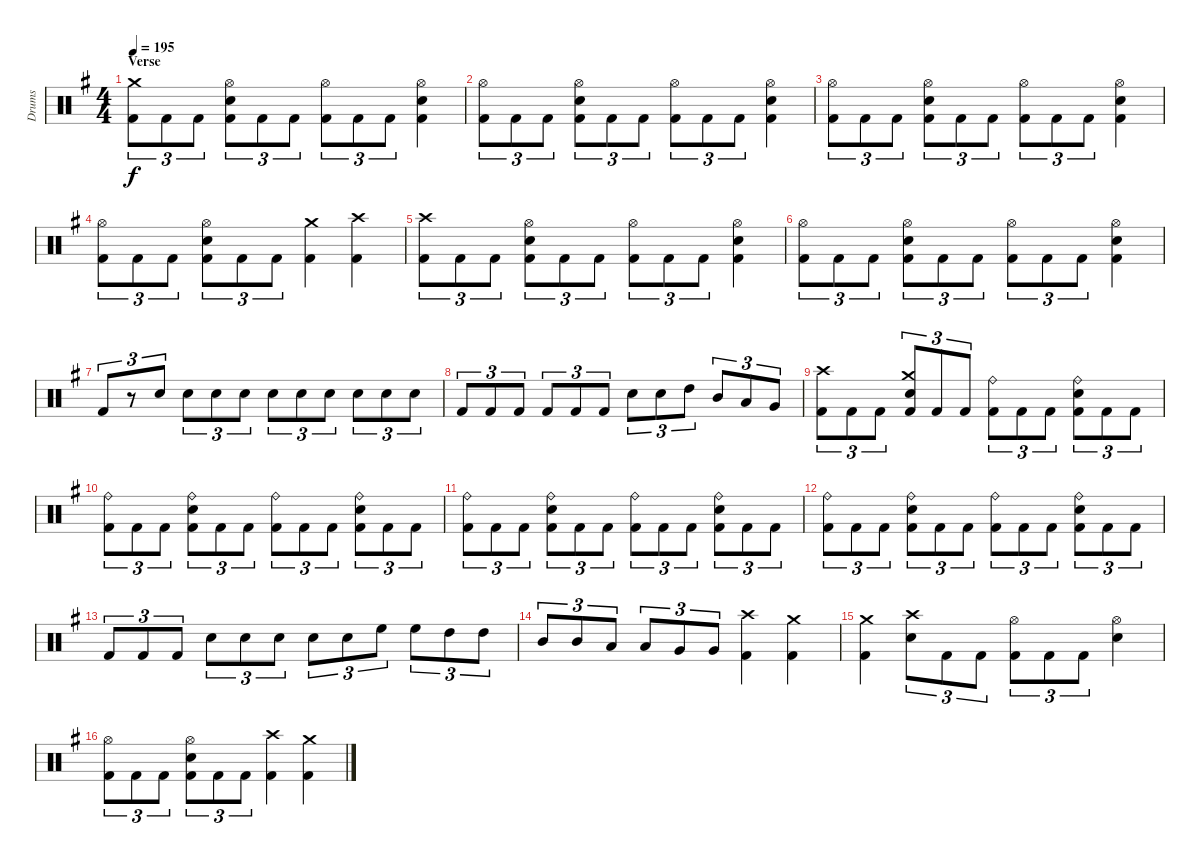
\track ("Drums" "Drums") {instrument percussion}
\staff {score}
\articulation defaults
\ts (4 4)
\section ("" "Verse")
\tempo 195
\clef neutral
\ks eminor
("Kick (hit) 2" "Crash medium (hit)").8{tu (3 2) dy f} "Kick (hit) 2".8{tu (3 2)} "Kick (hit) 2".8{tu (3 2)} ("Kick (hit) 2" "Electric Snare (hit)" "Hi-Hat (open)").8{tu (3 2)} "Kick (hit) 2".8{tu (3 2)} "Kick (hit) 2".8{tu (3 2)} ("Kick (hit) 2" "Hi-Hat (open)").8{tu (3 2)} "Kick (hit) 2".8{tu (3 2)} "Kick (hit) 2".8{tu (3 2)} ("Kick (hit) 2" "Electric Snare (hit)" "Hi-Hat (open)").4 |
("Kick (hit) 2" "Hi-Hat (open)").8{tu (3 2)} "Kick (hit) 2".8{tu (3 2)} "Kick (hit) 2".8{tu (3 2)} ("Kick (hit) 2" "Electric Snare (hit)" "Hi-Hat (open)").8{tu (3 2)} "Kick (hit) 2".8{tu (3 2)} "Kick (hit) 2".8{tu (3 2)} ("Kick (hit) 2" "Hi-Hat (open)").8{tu (3 2)} "Kick (hit) 2".8{tu (3 2)} "Kick (hit) 2".8{tu (3 2)} ("Kick (hit) 2" "Electric Snare (hit)" "Hi-Hat (open)").4 |
("Kick (hit) 2" "Hi-Hat (open)").8{tu (3 2)} "Kick (hit) 2".8{tu (3 2)} "Kick (hit) 2".8{tu (3 2)} ("Kick (hit) 2" "Electric Snare (hit)" "Hi-Hat (open)").8{tu (3 2)} "Kick (hit) 2".8{tu (3 2)} "Kick (hit) 2".8{tu (3 2)} ("Kick (hit) 2" "Hi-Hat (open)").8{tu (3 2)} "Kick (hit) 2".8{tu (3 2)} "Kick (hit) 2".8{tu (3 2)} ("Kick (hit) 2" "Electric Snare (hit)" "Hi-Hat (open)").4 |
("Kick (hit) 2" "Hi-Hat (open)").8{tu (3 2)} "Kick (hit) 2".8{tu (3 2)} "Kick (hit) 2".8{tu (3 2)} ("Kick (hit) 2" "Electric Snare (hit)" "Hi-Hat (open)").8{tu (3 2)} "Kick (hit) 2".8{tu (3 2)} "Kick (hit) 2".8{tu (3 2)} ("Kick (hit) 2" "Crash medium (hit)").4 ("Kick (hit) 2" "Crash high (hit)").4 |
("Kick (hit) 2" "Crash high (hit)").8{tu (3 2)} "Kick (hit) 2".8{tu (3 2)} "Kick (hit) 2".8{tu (3 2)} ("Kick (hit) 2" "Electric Snare (hit)" "Hi-Hat (open)").8{tu (3 2)} "Kick (hit) 2".8{tu (3 2)} "Kick (hit) 2".8{tu (3 2)} ("Kick (hit) 2" "Hi-Hat (open)").8{tu (3 2)} "Kick (hit) 2".8{tu (3 2)} "Kick (hit) 2".8{tu (3 2)} ("Kick (hit) 2" "Electric Snare (hit)" "Hi-Hat (open)").4 |
("Kick (hit) 2" "Hi-Hat (open)").8{tu (3 2)} "Kick (hit) 2".8{tu (3 2)} "Kick (hit) 2".8{tu (3 2)} ("Kick (hit) 2" "Electric Snare (hit)" "Hi-Hat (open)").8{tu (3 2)} "Kick (hit) 2".8{tu (3 2)} "Kick (hit) 2".8{tu (3 2)} ("Kick (hit) 2" "Hi-Hat (open)").8{tu (3 2)} "Kick (hit) 2".8{tu (3 2)} "Kick (hit) 2".8{tu (3 2)} ("Kick (hit) 2" "Electric Snare (hit)" "Hi-Hat (open)").4 |
"Kick (hit) 2".8{tu (3 2)} r.8{tu (3 2)} "Electric Snare (hit)".8{tu (3 2)} "Electric Snare (hit)".8{tu (3 2)} "Electric Snare (hit)".8{tu (3 2)} "Electric Snare (hit)".8{tu (3 2)} "Electric Snare (hit)".8{tu (3 2)} "Electric Snare (hit)".8{tu (3 2)} "Electric Snare (hit)".8{tu (3 2)} "Electric Snare (hit)".8{tu (3 2)} "Electric Snare (hit)".8{tu (3 2)} "Electric Snare (hit)".8{tu (3 2)} |
"Kick (hit) 2".8{tu (3 2)} "Kick (hit) 2".8{tu (3 2)} "Kick (hit) 2".8{tu (3 2)} "Kick (hit) 2".8{tu (3 2)} "Kick (hit) 2".8{tu (3 2)} "Kick (hit) 2".8{tu (3 2)} "Electric Snare (hit)".8{tu (3 2)} "Electric Snare (hit)".8{tu (3 2)} "High Tom (hit)".8{tu (3 2)} "Mid Tom (hit)".8{tu (3 2)} "Low Tom (hit)".8{tu (3 2)} "Very Low Tom (hit)".8{tu (3 2)} |
("Kick (hit) 2" "Crash high (hit)").8{tu (3 2)} "Kick (hit) 2".8{tu (3 2)} "Kick (hit) 2".8{tu (3 2)} ("Kick (hit) 2" "Electric Snare (hit)" "Crash medium (hit)").8{tu (3 2)} "Kick (hit) 2".8{tu (3 2)} "Kick (hit) 2".8{tu (3 2)} ("Kick (hit) 2" "Ride (bell)").8{tu (3 2)} "Kick (hit) 2".8{tu (3 2)} "Kick (hit) 2".8{tu (3 2)} ("Kick (hit) 2" "Electric Snare (hit)" "Ride (bell)").8{tu (3 2)} "Kick (hit) 2".8{tu (3 2)} "Kick (hit) 2".8{tu (3 2)} |
("Kick (hit) 2" "Ride (bell)").8{tu (3 2)} "Kick (hit) 2".8{tu (3 2)} "Kick (hit) 2".8{tu (3 2)} ("Kick (hit) 2" "Electric Snare (hit)" "Ride (bell)").8{tu (3 2)} "Kick (hit) 2".8{tu (3 2)} "Kick (hit) 2".8{tu (3 2)} ("Kick (hit) 2" "Ride (bell)").8{tu (3 2)} "Kick (hit) 2".8{tu (3 2)} "Kick (hit) 2".8{tu (3 2)} ("Kick (hit) 2" "Electric Snare (hit)" "Ride (bell)").8{tu (3 2)} "Kick (hit) 2".8{tu (3 2)} "Kick (hit) 2".8{tu (3 2)} |
("Kick (hit) 2" "Ride (bell)").8{tu (3 2)} "Kick (hit) 2".8{tu (3 2)} "Kick (hit) 2".8{tu (3 2)} ("Kick (hit) 2" "Electric Snare (hit)" "Ride (bell)").8{tu (3 2)} "Kick (hit) 2".8{tu (3 2)} "Kick (hit) 2".8{tu (3 2)} ("Kick (hit) 2" "Ride (bell)").8{tu (3 2)} "Kick (hit) 2".8{tu (3 2)} "Kick (hit) 2".8{tu (3 2)} ("Kick (hit) 2" "Electric Snare (hit)" "Ride (bell)").8{tu (3 2)} "Kick (hit) 2".8{tu (3 2)} "Kick (hit) 2".8{tu (3 2)} |
("Kick (hit) 2" "Ride (bell)").8{tu (3 2)} "Kick (hit) 2".8{tu (3 2)} "Kick (hit) 2".8{tu (3 2)} ("Kick (hit) 2" "Electric Snare (hit)" "Ride (bell)").8{tu (3 2)} "Kick (hit) 2".8{tu (3 2)} "Kick (hit) 2".8{tu (3 2)} ("Kick (hit) 2" "Ride (bell)").8{tu (3 2)} "Kick (hit) 2".8{tu (3 2)} "Kick (hit) 2".8{tu (3 2)} ("Kick (hit) 2" "Electric Snare (hit)" "Ride (bell)").8{tu (3 2)} "Kick (hit) 2".8{tu (3 2)} "Kick (hit) 2".8{tu (3 2)} |
"Kick (hit) 2".8{tu (3 2)} "Kick (hit) 2".8{tu (3 2)} "Kick (hit) 2".8{tu (3 2)} "Electric Snare (hit)".8{tu (3 2)} "Electric Snare (hit)".8{tu (3 2)} "Electric Snare (hit)".8{tu (3 2)} "Electric Snare (hit)".8{tu (3 2)} "Electric Snare (hit)".8{tu (3 2)} "High Floor Tom (hit)".8{tu (3 2)} "High Floor Tom (hit)".8{tu (3 2)} "High Tom (hit)".8{tu (3 2)} "High Tom (hit)".8{tu (3 2)} |
"Mid Tom (hit)".8{tu (3 2)} "Mid Tom (hit)".8{tu (3 2)} "Low Tom (hit)".8{tu (3 2)} "Low Tom (hit)".8{tu (3 2)} "Very Low Tom (hit)".8{tu (3 2)} "Very Low Tom (hit)".8{tu (3 2)} ("Kick (hit) 2" "Crash high (hit)").4 ("Kick (hit) 2" "Crash medium (hit)").4 |
("Kick (hit) 2" "Crash medium (hit)").4 ("Electric Snare (hit)" "Crash high (hit)").8{tu (3 2)} "Kick (hit) 2".8{tu (3 2)} "Kick (hit) 2".8{tu (3 2)} ("Kick (hit) 2" "Hi-Hat (open)").8{tu (3 2)} "Kick (hit) 2".8{tu (3 2)} "Kick (hit) 2".8{tu (3 2)} ("Electric Snare (hit)" "Hi-Hat (open)").4 |
("Kick (hit) 2" "Hi-Hat (open)").8{tu (3 2)} "Kick (hit) 2".8{tu (3 2)} "Kick (hit) 2".8{tu (3 2)} ("Kick (hit) 2" "Electric Snare (hit)" "Hi-Hat (open)").8{tu (3 2)} "Kick (hit) 2".8{tu (3 2)} "Kick (hit) 2".8{tu (3 2)} ("Kick (hit) 2" "Crash high (hit)").4 ("Kick (hit) 2" "Crash medium (hit)").4
